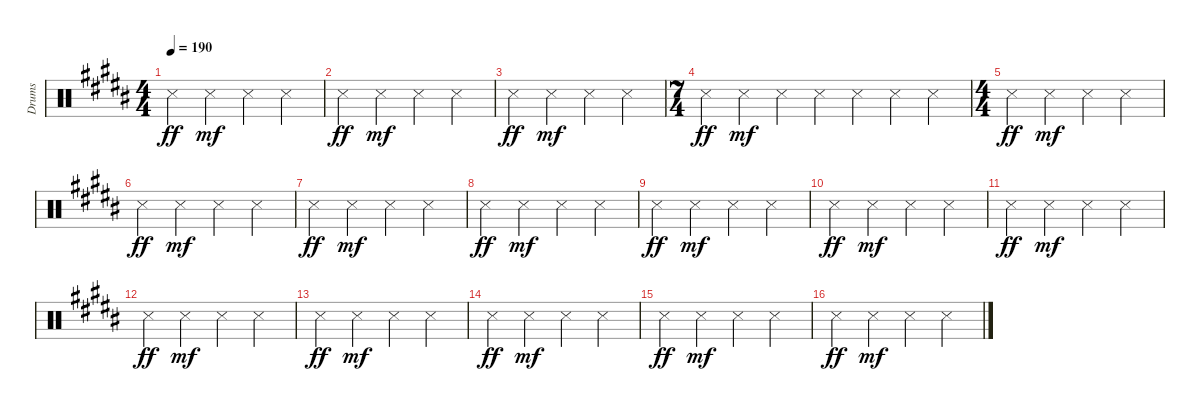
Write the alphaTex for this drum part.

\bracketExtendMode groupsimilarinstruments
\otherSystemsTrackNameOrientation horizontal
\track ("Drumkit" "Drums") {mute instrument percussion}
\staff {score}
\articulation defaults
\ts (4 4)
\tempo 190
\clef neutral
\scale
0.333333
\ks b "Snare (side stick) 3"{acc forcenatural}.4{dy ff} "Snare (side stick) 3"{acc forcenatural}.4{dy mf} "Snare (side stick) 3"{acc forcenatural}.4 "Snare (side stick) 3"{acc forcenatural}.4
|
\scale
0.333333 "Snare (side stick) 3"{acc forcenatural}.4{dy ff} "Snare (side stick) 3"{acc forcenatural}.4{dy mf} "Snare (side stick) 3"{acc forcenatural}.4 "Snare (side stick) 3"{acc forcenatural}.4 |
\scale
0.333333 "Snare (side stick) 3"{acc forcenatural}.4{dy ff} "Snare (side stick) 3"{acc forcenatural}.4{dy mf} "Snare (side stick) 3"{acc forcenatural}.4 "Snare (side stick) 3"{acc forcenatural}.4 |
\ts (7 4)
\scale
0.390805 "Snare (side stick) 3"{acc forcenatural}.4{dy ff} "Snare (side stick) 3"{acc forcenatural}.4{dy mf} "Snare (side stick) 3"{acc forcenatural}.4 "Snare (side stick) 3"{acc forcenatural}.4 "Snare (side stick) 3"{acc forcenatural}.4 "Snare (side stick) 3"{acc forcenatural}.4 "Snare (side stick) 3"{acc forcenatural}.4 |
\ts (4 4)
\scale
0.390805 "Snare (side stick) 3"{acc forcenatural}.4{dy ff} "Snare (side stick) 3"{acc forcenatural}.4{dy mf} "Snare (side stick) 3"{acc forcenatural}.4 "Snare (side stick) 3"{acc forcenatural}.4 |
\scale
0.218391 "Snare (side stick) 3"{acc forcenatural}.4{dy ff} "Snare (side stick) 3"{acc forcenatural}.4{dy mf} "Snare (side stick) 3"{acc forcenatural}.4 "Snare (side stick) 3"{acc forcenatural}.4 |
\scale
0.333333 "Snare (side stick) 3"{acc forcenatural}.4{dy ff} "Snare (side stick) 3"{acc forcenatural}.4{dy mf} "Snare (side stick) 3"{acc forcenatural}.4 "Snare (side stick) 3"{acc forcenatural}.4 |
\scale
0.333333 "Snare (side stick) 3"{acc forcenatural}.4{dy ff} "Snare (side stick) 3"{acc forcenatural}.4{dy mf} "Snare (side stick) 3"{acc forcenatural}.4 "Snare (side stick) 3"{acc forcenatural}.4 |
\scale
0.333333 "Snare (side stick) 3"{acc forcenatural}.4{dy ff} "Snare (side stick) 3"{acc forcenatural}.4{dy mf} "Snare (side stick) 3"{acc forcenatural}.4 "Snare (side stick) 3"{acc forcenatural}.4 |
\scale
0.333333 "Snare (side stick) 3"{acc forcenatural}.4{dy ff} "Snare (side stick) 3"{acc forcenatural}.4{dy mf} "Snare (side stick) 3"{acc forcenatural}.4 "Snare (side stick) 3"{acc forcenatural}.4 |
\scale
0.333333 "Snare (side stick) 3"{acc forcenatural}.4{dy ff} "Snare (side stick) 3"{acc forcenatural}.4{dy mf} "Snare (side stick) 3"{acc forcenatural}.4 "Snare (side stick) 3"{acc forcenatural}.4 |
\scale
0.333333 "Snare (side stick) 3"{acc forcenatural}.4{dy ff} "Snare (side stick) 3"{acc forcenatural}.4{dy mf} "Snare (side stick) 3"{acc forcenatural}.4 "Snare (side stick) 3"{acc forcenatural}.4 |
\scale
0.333333 "Snare (side stick) 3"{acc forcenatural}.4{dy ff} "Snare (side stick) 3"{acc forcenatural}.4{dy mf} "Snare (side stick) 3"{acc forcenatural}.4 "Snare (side stick) 3"{acc forcenatural}.4 |
\scale
0.333333 "Snare (side stick) 3"{acc forcenatural}.4{dy ff} "Snare (side stick) 3"{acc forcenatural}.4{dy mf} "Snare (side stick) 3"{acc forcenatural}.4 "Snare (side stick) 3"{acc forcenatural}.4 |
\scale
0.333333 "Snare (side stick) 3"{acc forcenatural}.4{dy ff} "Snare (side stick) 3"{acc forcenatural}.4{dy mf} "Snare (side stick) 3"{acc forcenatural}.4 "Snare (side stick) 3"{acc forcenatural}.4 |
\scale
0.333333 "Snare (side stick) 3"{acc forcenatural}.4{dy ff} "Snare (side stick) 3"{acc forcenatural}.4{dy mf} "Snare (side stick) 3"{acc forcenatural}.4 "Snare (side stick) 3"{acc forcenatural}.4
